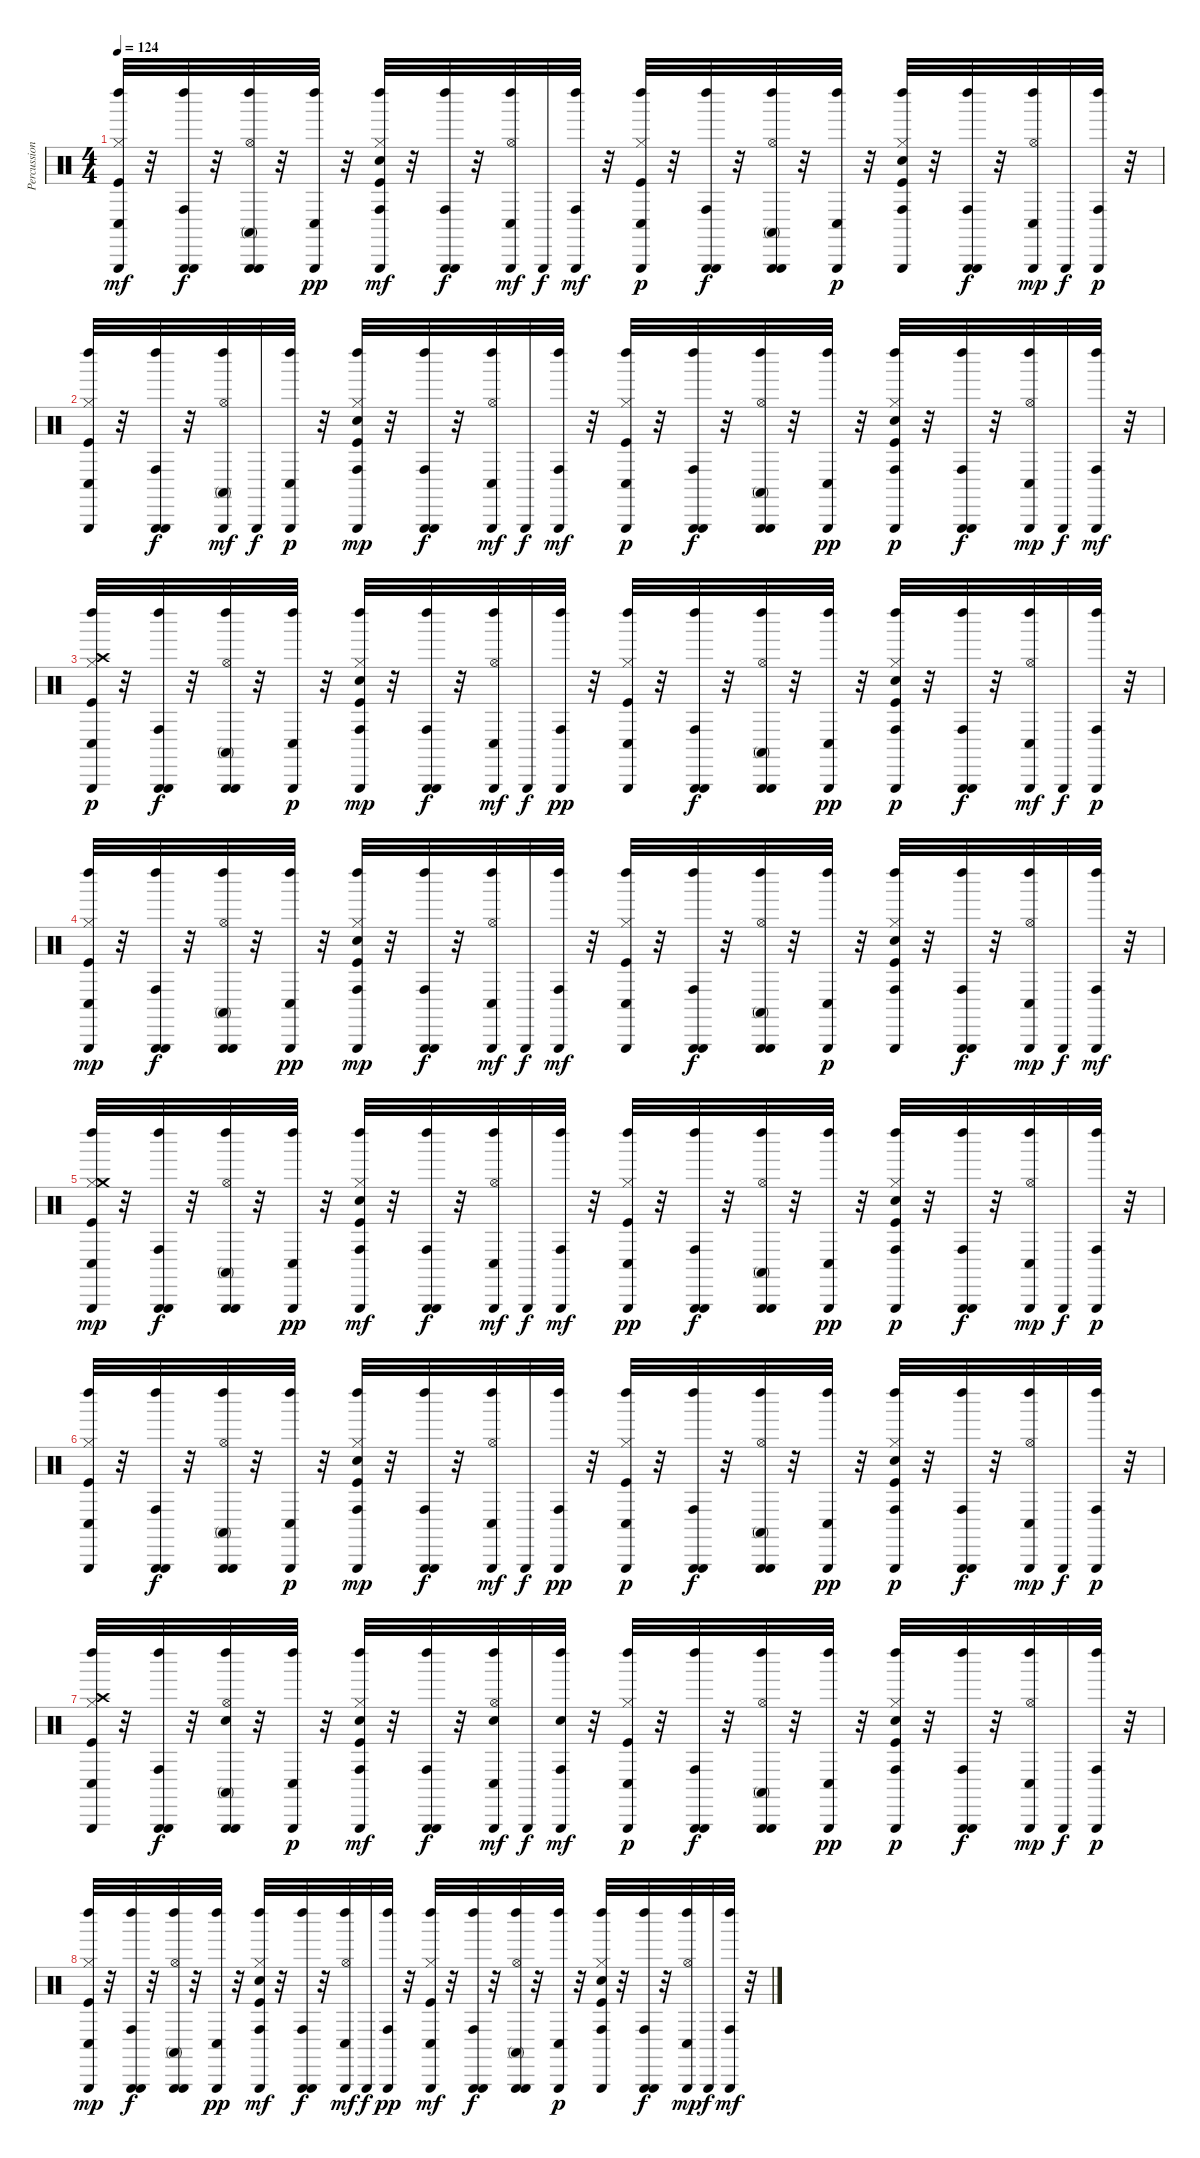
\track ("Percussion" "Percussion") {instrument percussion}
\staff {score}
\articulation defaults
\ts (4 4)
\tempo 124
\clef neutral
\ks c
("Conga low (hit)" "Triangle (hit)" "Kick (hit)" "Left Maraca (hit)" "Hi-Hat (closed)").32{dy mf} r.32 ("Triangle (hit)" "Conga high (hit)" "Left Maraca (hit)" "Triangle (hit)").32{dy f} r.32 ("Left Maraca (hit)" "Triangle (hit)" "Hi-Hat (open)" "Conga high (mute)" "Triangle (hit)").32 r.32 ("Triangle (hit)" "Conga low (hit)" "Left Maraca (hit)").32{dy pp} r.32 ("Left Maraca (hit)" "Triangle (hit)" "Kick (hit)" "Snare (hit) 2" "Hi-Hat (closed)" "Conga high (hit)").32{dy mf} r.32 ("Triangle (hit)" "Conga high (hit)" "Left Maraca (hit)" "Triangle (hit)").32{dy f} r.32 ("Triangle (hit)" "Conga low (hit)" "Hi-Hat (open)" "Left Maraca (hit)").32{dy mf} "Triangle (hit)".32{dy f} ("Triangle (hit)" "Left Maraca (hit)" "Conga high (hit)").32{dy mf} r.32 ("Triangle (hit)" "Hi-Hat (closed)" "Kick (hit)" "Conga low (hit)" "Left Maraca (hit)").32{dy p} r.32 ("Triangle (hit)" "Conga high (hit)" "Left Maraca (hit)" "Triangle (hit)").32{dy f} r.32 ("Triangle (hit)" "Hi-Hat (open)" "Conga high (mute)" "Left Maraca (hit)" "Triangle (hit)").32 r.32 ("Left Maraca (hit)" "Triangle (hit)" "Conga low (hit)").32{dy p} r.32 ("Conga high (hit)" "Triangle (hit)" "Kick (hit)" "Snare (hit) 2" "Hi-Hat (closed)" "Left Maraca (hit)").32 r.32 ("Conga high (hit)" "Triangle (hit)" "Left Maraca (hit)" "Triangle (hit)").32{dy f} r.32 ("Conga low (hit)" "Triangle (hit)" "Left Maraca (hit)" "Hi-Hat (open)").32{dy mp} "Triangle (hit)".32{dy f} ("Triangle (hit)" "Conga high (hit)" "Left Maraca (hit)").32{dy p} r.32 |
("Triangle (hit)" "Kick (hit)" "Hi-Hat (closed)" "Left Maraca (hit)" "Conga low (hit)").32 r.32 ("Left Maraca (hit)" "Triangle (hit)" "Conga high (hit)" "Triangle (hit)").32{dy f} r.32 ("Triangle (hit)" "Hi-Hat (open)" "Conga high (mute)" "Left Maraca (hit)").32{dy mf} "Triangle (hit)".32{dy f} ("Left Maraca (hit)" "Triangle (hit)" "Conga low (hit)").32{dy p} r.32 ("Triangle (hit)" "Kick (hit)" "Snare (hit) 2" "Hi-Hat (closed)" "Conga high (hit)" "Left Maraca (hit)").32{dy mp} r.32 ("Conga high (hit)" "Triangle (hit)" "Left Maraca (hit)" "Triangle (hit)").32{dy f} r.32 ("Triangle (hit)" "Hi-Hat (open)" "Left Maraca (hit)" "Conga low (hit)").32{dy mf} "Triangle (hit)".32{dy f} ("Triangle (hit)" "Left Maraca (hit)" "Conga high (hit)").32{dy mf} r.32 ("Triangle (hit)" "Hi-Hat (closed)" "Kick (hit)" "Conga low (hit)" "Left Maraca (hit)").32{dy p} r.32 ("Left Maraca (hit)" "Triangle (hit)" "Conga high (hit)" "Triangle (hit)").32{dy f} r.32 ("Conga high (mute)" "Triangle (hit)" "Hi-Hat (open)" "Left Maraca (hit)" "Triangle (hit)").32 r.32 ("Triangle (hit)" "Conga low (hit)" "Left Maraca (hit)").32{dy pp} r.32 ("Triangle (hit)" "Kick (hit)" "Snare (hit) 2" "Hi-Hat (closed)" "Conga high (hit)" "Left Maraca (hit)").32{dy p} r.32 ("Conga high (hit)" "Left Maraca (hit)" "Triangle (hit)" "Triangle (hit)").32{dy f} r.32 ("Triangle (hit)" "Conga low (hit)" "Hi-Hat (open)" "Left Maraca (hit)").32{dy mp} "Triangle (hit)".32{dy f} ("Left Maraca (hit)" "Triangle (hit)" "Conga high (hit)").32{dy mf} r.32 |
("Triangle (hit)" "Hi-Hat (closed)" "Left Maraca (hit)" "Kick (hit)" "Crash high (hit)" "Conga low (hit)").32{dy p} r.32 ("Triangle (hit)" "Conga high (hit)" "Left Maraca (hit)" "Triangle (hit)").32{dy f} r.32 ("Triangle (hit)" "Left Maraca (hit)" "Hi-Hat (open)" "Conga high (mute)" "Triangle (hit)").32 r.32 ("Triangle (hit)" "Left Maraca (hit)" "Conga low (hit)").32{dy p} r.32 ("Hi-Hat (closed)" "Conga high (hit)" "Triangle (hit)" "Kick (hit)" "Snare (hit) 2" "Left Maraca (hit)").32{dy mp} r.32 ("Triangle (hit)" "Conga high (hit)" "Left Maraca (hit)" "Triangle (hit)").32{dy f} r.32 ("Triangle (hit)" "Hi-Hat (open)" "Conga low (hit)" "Left Maraca (hit)").32{dy mf} "Triangle (hit)".32{dy f} ("Triangle (hit)" "Conga high (hit)" "Left Maraca (hit)").32{dy pp} r.32 ("Triangle (hit)" "Left Maraca (hit)" "Kick (hit)" "Hi-Hat (closed)" "Conga low (hit)").32 r.32 ("Triangle (hit)" "Conga high (hit)" "Left Maraca (hit)" "Triangle (hit)").32{dy f} r.32 ("Triangle (hit)" "Hi-Hat (open)" "Left Maraca (hit)" "Conga high (mute)" "Triangle (hit)").32 r.32 ("Triangle (hit)" "Conga low (hit)" "Left Maraca (hit)").32{dy pp} r.32 ("Hi-Hat (closed)" "Conga high (hit)" "Triangle (hit)" "Kick (hit)" "Snare (hit) 2" "Left Maraca (hit)").32{dy p} r.32 ("Triangle (hit)" "Left Maraca (hit)" "Conga high (hit)" "Triangle (hit)").32{dy f} r.32 ("Triangle (hit)" "Left Maraca (hit)" "Hi-Hat (open)" "Conga low (hit)").32{dy mf} "Triangle (hit)".32{dy f} ("Conga high (hit)" "Left Maraca (hit)" "Triangle (hit)").32{dy p} r.32 |
("Triangle (hit)" "Conga low (hit)" "Kick (hit)" "Hi-Hat (closed)" "Left Maraca (hit)").32{dy mp} r.32 ("Triangle (hit)" "Left Maraca (hit)" "Conga high (hit)" "Triangle (hit)").32{dy f} r.32 ("Triangle (hit)" "Conga high (mute)" "Hi-Hat (open)" "Left Maraca (hit)" "Triangle (hit)").32 r.32 ("Triangle (hit)" "Conga low (hit)" "Left Maraca (hit)").32{dy pp} r.32 ("Conga high (hit)" "Triangle (hit)" "Kick (hit)" "Snare (hit) 2" "Hi-Hat (closed)" "Left Maraca (hit)").32{dy mp} r.32 ("Conga high (hit)" "Triangle (hit)" "Left Maraca (hit)" "Triangle (hit)").32{dy f} r.32 ("Triangle (hit)" "Hi-Hat (open)" "Left Maraca (hit)" "Conga low (hit)").32{dy mf} "Triangle (hit)".32{dy f} ("Triangle (hit)" "Left Maraca (hit)" "Conga high (hit)").32{dy mf} r.32 ("Conga low (hit)" "Left Maraca (hit)" "Triangle (hit)" "Kick (hit)" "Hi-Hat (closed)").32 r.32 ("Triangle (hit)" "Conga high (hit)" "Left Maraca (hit)" "Triangle (hit)").32{dy f} r.32 ("Hi-Hat (open)" "Conga high (mute)" "Triangle (hit)" "Left Maraca (hit)" "Triangle (hit)").32 r.32 ("Conga low (hit)" "Left Maraca (hit)" "Triangle (hit)").32{dy p} r.32 ("Conga high (hit)" "Triangle (hit)" "Kick (hit)" "Snare (hit) 2" "Hi-Hat (closed)" "Left Maraca (hit)").32 r.32 ("Triangle (hit)" "Conga high (hit)" "Left Maraca (hit)" "Triangle (hit)").32{dy f} r.32 ("Triangle (hit)" "Conga low (hit)" "Hi-Hat (open)" "Left Maraca (hit)").32{dy mp} "Triangle (hit)".32{dy f} ("Triangle (hit)" "Left Maraca (hit)" "Conga high (hit)").32{dy mf} r.32 |
("Triangle (hit)" "Conga low (hit)" "Left Maraca (hit)" "Kick (hit)" "Hi-Hat (closed)" "Crash medium (hit)").32{dy mp} r.32 ("Triangle (hit)" "Left Maraca (hit)" "Conga high (hit)" "Triangle (hit)").32{dy f} r.32 ("Triangle (hit)" "Hi-Hat (open)" "Conga high (mute)" "Left Maraca (hit)" "Triangle (hit)").32 r.32 ("Triangle (hit)" "Conga low (hit)" "Left Maraca (hit)").32{dy pp} r.32 ("Triangle (hit)" "Kick (hit)" "Snare (hit) 2" "Left Maraca (hit)" "Hi-Hat (closed)" "Conga high (hit)").32{dy mf} r.32 ("Triangle (hit)" "Left Maraca (hit)" "Conga high (hit)" "Triangle (hit)").32{dy f} r.32 ("Triangle (hit)" "Conga low (hit)" "Hi-Hat (open)" "Left Maraca (hit)").32{dy mf} "Triangle (hit)".32{dy f} ("Triangle (hit)" "Left Maraca (hit)" "Conga high (hit)").32{dy mf} r.32 ("Triangle (hit)" "Kick (hit)" "Hi-Hat (closed)" "Left Maraca (hit)" "Conga low (hit)").32{dy pp} r.32 ("Triangle (hit)" "Conga high (hit)" "Left Maraca (hit)" "Triangle (hit)").32{dy f} r.32 ("Triangle (hit)" "Left Maraca (hit)" "Hi-Hat (open)" "Conga high (mute)" "Triangle (hit)").32 r.32 ("Conga low (hit)" "Triangle (hit)" "Left Maraca (hit)").32{dy pp} r.32 ("Triangle (hit)" "Hi-Hat (closed)" "Kick (hit)" "Snare (hit) 2" "Conga high (hit)" "Left Maraca (hit)").32{dy p} r.32 ("Triangle (hit)" "Left Maraca (hit)" "Conga high (hit)" "Triangle (hit)").32{dy f} r.32 ("Triangle (hit)" "Hi-Hat (open)" "Conga low (hit)" "Left Maraca (hit)").32{dy mp} "Triangle (hit)".32{dy f} ("Triangle (hit)" "Conga high (hit)" "Left Maraca (hit)").32{dy p} r.32 |
("Hi-Hat (closed)" "Triangle (hit)" "Kick (hit)" "Left Maraca (hit)" "Conga low (hit)").32 r.32 ("Triangle (hit)" "Left Maraca (hit)" "Conga high (hit)" "Triangle (hit)").32{dy f} r.32 ("Triangle (hit)" "Left Maraca (hit)" "Hi-Hat (open)" "Conga high (mute)" "Triangle (hit)").32 r.32 ("Triangle (hit)" "Left Maraca (hit)" "Conga low (hit)").32{dy p} r.32 ("Triangle (hit)" "Hi-Hat (closed)" "Kick (hit)" "Snare (hit) 2" "Conga high (hit)" "Left Maraca (hit)").32{dy mp} r.32 ("Left Maraca (hit)" "Triangle (hit)" "Conga high (hit)" "Triangle (hit)").32{dy f} r.32 ("Hi-Hat (open)" "Conga low (hit)" "Triangle (hit)" "Left Maraca (hit)").32{dy mf} "Triangle (hit)".32{dy f} ("Triangle (hit)" "Conga high (hit)" "Left Maraca (hit)").32{dy pp} r.32 ("Hi-Hat (closed)" "Left Maraca (hit)" "Triangle (hit)" "Kick (hit)" "Conga low (hit)").32{dy p} r.32 ("Triangle (hit)" "Conga high (hit)" "Left Maraca (hit)" "Triangle (hit)").32{dy f} r.32 ("Triangle (hit)" "Left Maraca (hit)" "Hi-Hat (open)" "Conga high (mute)" "Triangle (hit)").32 r.32 ("Triangle (hit)" "Conga low (hit)" "Left Maraca (hit)").32{dy pp} r.32 ("Triangle (hit)" "Kick (hit)" "Snare (hit) 2" "Hi-Hat (closed)" "Conga high (hit)" "Left Maraca (hit)").32{dy p} r.32 ("Conga high (hit)" "Triangle (hit)" "Left Maraca (hit)" "Triangle (hit)").32{dy f} r.32 ("Triangle (hit)" "Hi-Hat (open)" "Conga low (hit)" "Left Maraca (hit)").32{dy mp} "Triangle (hit)".32{dy f} ("Triangle (hit)" "Conga high (hit)" "Left Maraca (hit)").32{dy p} r.32 |
("Triangle (hit)" "Kick (hit)" "Hi-Hat (closed)" "Crash high (hit)" "Left Maraca (hit)" "Conga low (hit)").32 r.32 ("Triangle (hit)" "Conga high (hit)" "Left Maraca (hit)" "Triangle (hit)").32{dy f} r.32 ("Triangle (hit)" "Conga high (mute)" "Snare (hit) 2" "Hi-Hat (open)" "Left Maraca (hit)" "Triangle (hit)").32 r.32 ("Triangle (hit)" "Left Maraca (hit)" "Conga low (hit)").32{dy p} r.32 ("Triangle (hit)" "Left Maraca (hit)" "Kick (hit)" "Snare (hit) 2" "Conga high (hit)" "Hi-Hat (closed)").32{dy mf} r.32 ("Left Maraca (hit)" "Triangle (hit)" "Conga high (hit)" "Triangle (hit)").32{dy f} r.32 ("Hi-Hat (open)" "Triangle (hit)" "Snare (hit) 2" "Conga low (hit)" "Left Maraca (hit)").32{dy mf} "Triangle (hit)".32{dy f} ("Triangle (hit)" "Left Maraca (hit)" "Snare (hit) 2" "Conga high (hit)").32{dy mf} r.32 ("Triangle (hit)" "Conga low (hit)" "Kick (hit)" "Hi-Hat (closed)" "Left Maraca (hit)").32{dy p} r.32 ("Triangle (hit)" "Conga high (hit)" "Left Maraca (hit)" "Triangle (hit)").32{dy f} r.32 ("Triangle (hit)" "Hi-Hat (open)" "Left Maraca (hit)" "Conga high (mute)" "Triangle (hit)").32 r.32 ("Triangle (hit)" "Conga low (hit)" "Left Maraca (hit)").32{dy pp} r.32 ("Triangle (hit)" "Kick (hit)" "Snare (hit) 2" "Hi-Hat (closed)" "Conga high (hit)" "Left Maraca (hit)").32{dy p} r.32 ("Triangle (hit)" "Left Maraca (hit)" "Conga high (hit)" "Triangle (hit)").32{dy f} r.32 ("Triangle (hit)" "Left Maraca (hit)" "Conga low (hit)" "Hi-Hat (open)").32{dy mp} "Triangle (hit)".32{dy f} ("Conga high (hit)" "Triangle (hit)" "Left Maraca (hit)").32{dy p} r.32 |
("Hi-Hat (closed)" "Conga low (hit)" "Triangle (hit)" "Kick (hit)" "Left Maraca (hit)").32{dy mp} r.32 ("Conga high (hit)" "Left Maraca (hit)" "Triangle (hit)" "Triangle (hit)").32{dy f} r.32 ("Conga high (mute)" "Triangle (hit)" "Hi-Hat (open)" "Left Maraca (hit)" "Triangle (hit)").32 r.32 ("Triangle (hit)" "Conga low (hit)" "Left Maraca (hit)").32{dy pp} r.32 ("Left Maraca (hit)" "Triangle (hit)" "Kick (hit)" "Snare (hit) 2" "Hi-Hat (closed)" "Conga high (hit)").32{dy mf} r.32 ("Triangle (hit)" "Conga high (hit)" "Left Maraca (hit)" "Triangle (hit)").32{dy f} r.32 ("Triangle (hit)" "Hi-Hat (open)" "Left Maraca (hit)" "Conga low (hit)").32{dy mf} "Triangle (hit)".32{dy f} ("Triangle (hit)" "Conga high (hit)" "Left Maraca (hit)").32{dy pp} r.32 ("Triangle (hit)" "Conga low (hit)" "Left Maraca (hit)" "Kick (hit)" "Hi-Hat (closed)").32{dy mf} r.32 ("Triangle (hit)" "Conga high (hit)" "Left Maraca (hit)" "Triangle (hit)").32{dy f} r.32 ("Hi-Hat (open)" "Left Maraca (hit)" "Triangle (hit)" "Conga high (mute)" "Triangle (hit)").32 r.32 ("Triangle (hit)" "Left Maraca (hit)" "Conga low (hit)").32{dy p} r.32 ("Hi-Hat (closed)" "Triangle (hit)" "Kick (hit)" "Snare (hit) 2" "Conga high (hit)" "Left Maraca (hit)").32 r.32 ("Triangle (hit)" "Conga high (hit)" "Left Maraca (hit)" "Triangle (hit)").32{dy f} r.32 ("Triangle (hit)" "Conga low (hit)" "Hi-Hat (open)" "Left Maraca (hit)").32{dy mp} "Triangle (hit)".32{dy f} ("Triangle (hit)" "Left Maraca (hit)" "Conga high (hit)").32{dy mf} r.32
